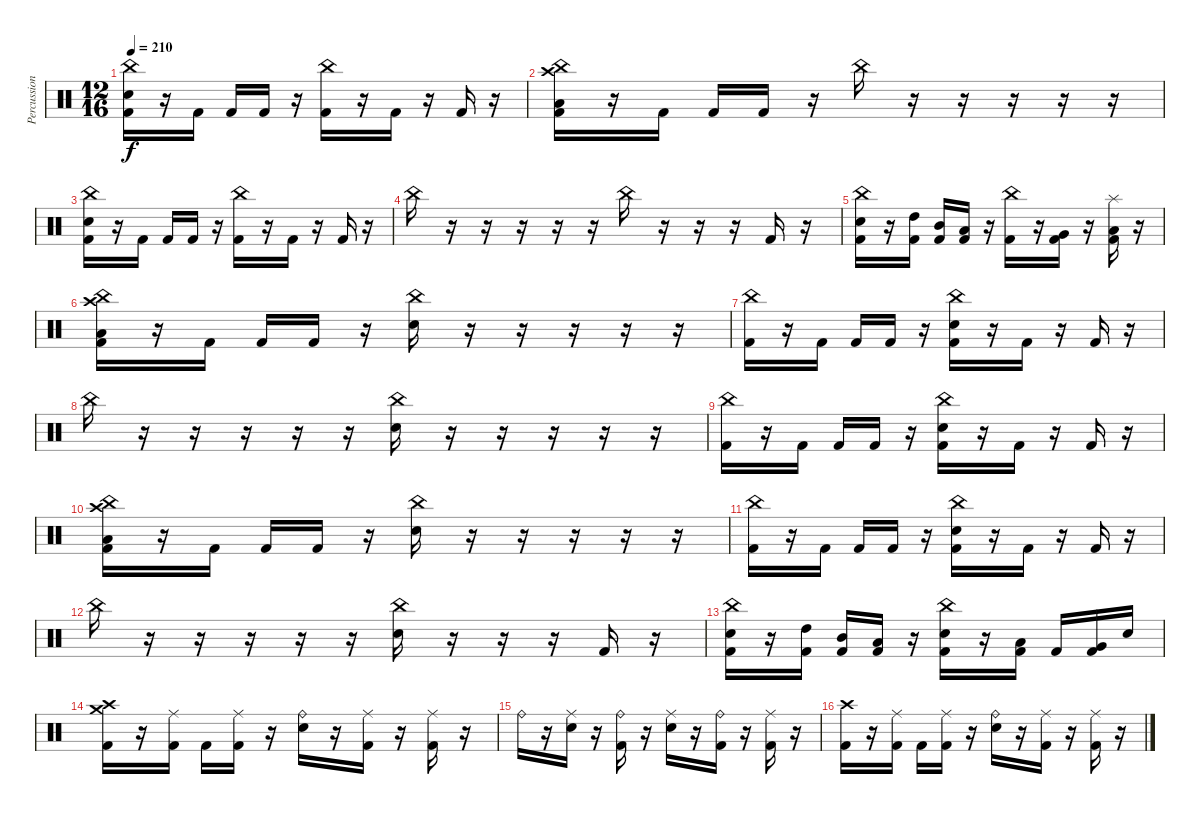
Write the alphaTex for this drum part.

\track ("Percussion" "Percussion") {instrument percussion}
\staff {score}
\articulation defaults
\ts (12 16)
\tempo 210
\clef neutral
\ks c
("China (hit)" "Electric Snare (hit)" "Kick (hit) 2").16{dy f} r.16 "Kick (hit) 2".16 "Kick (hit) 2".16 "Kick (hit) 2".16 r.16 ("China (hit)" "Kick (hit) 2").16 r.16 "Kick (hit) 2".16 r.16 "Kick (hit) 2".16 r.16 |
("Crash high (hit)" "China (hit)" "Low Floor Tom (hit)" "Kick (hit) 2").16 r.16 "Kick (hit) 2".16 "Kick (hit) 2".16 "Kick (hit) 2".16 r.16 "China (hit)".16 r.16 r.16 r.16 r.16 r.16 |
("China (hit)" "Electric Snare (hit)" "Kick (hit) 2").16 r.16 "Kick (hit) 2".16 "Kick (hit) 2".16 "Kick (hit) 2".16 r.16 ("China (hit)" "Kick (hit) 2").16 r.16 "Kick (hit) 2".16 r.16 "Kick (hit) 2".16 r.16 |
"China (hit)".16 r.16 r.16 r.16 r.16 r.16 "China (hit)".16 r.16 r.16 r.16 "Kick (hit) 2".16 r.16 |
("China (hit)" "Electric Snare (hit)" "Kick (hit) 2").16 r.16 ("High Tom (hit)" "Kick (hit) 2").16 ("Mid Tom (hit)" "Kick (hit) 2").16 ("Low Tom (hit)" "Kick (hit) 2").16 r.16 ("China (hit)" "Kick (hit) 2").16 r.16 ("Very Low Tom (hit)" "Kick (hit) 2").16 r.16 ("Splash (hit)" "Low Floor Tom (hit)" "Kick (hit) 2").16 r.16 |
("Crash high (hit)" "China (hit)" "Low Floor Tom (hit)" "Kick (hit) 2").16 r.16 "Kick (hit) 2".16 "Kick (hit) 2".16 "Kick (hit) 2".16 r.16 ("China (hit)" "Electric Snare (hit)").16 r.16 r.16 r.16 r.16 r.16 |
("China (hit)" "Kick (hit) 2").16 r.16 "Kick (hit) 2".16 "Kick (hit) 2".16 "Kick (hit) 2".16 r.16 ("China (hit)" "Electric Snare (hit)" "Kick (hit) 2").16 r.16 "Kick (hit) 2".16 r.16 "Kick (hit) 2".16 r.16 |
"China (hit)".16 r.16 r.16 r.16 r.16 r.16 ("China (hit)" "Electric Snare (hit)").16 r.16 r.16 r.16 r.16 r.16 |
("China (hit)" "Kick (hit) 2").16 r.16 "Kick (hit) 2".16 "Kick (hit) 2".16 "Kick (hit) 2".16 r.16 ("China (hit)" "Electric Snare (hit)" "Kick (hit) 2").16 r.16 "Kick (hit) 2".16 r.16 "Kick (hit) 2".16 r.16 |
("Crash high (hit)" "China (hit)" "Low Floor Tom (hit)" "Kick (hit) 2").16 r.16 "Kick (hit) 2".16 "Kick (hit) 2".16 "Kick (hit) 2".16 r.16 ("China (hit)" "Electric Snare (hit)").16 r.16 r.16 r.16 r.16 r.16 |
("China (hit)" "Kick (hit) 2").16 r.16 "Kick (hit) 2".16 "Kick (hit) 2".16 "Kick (hit) 2".16 r.16 ("China (hit)" "Electric Snare (hit)" "Kick (hit) 2").16 r.16 "Kick (hit) 2".16 r.16 "Kick (hit) 2".16 r.16 |
"China (hit)".16 r.16 r.16 r.16 r.16 r.16 ("China (hit)" "Electric Snare (hit)").16 r.16 r.16 r.16 "Kick (hit) 2".16 r.16 |
("China (hit)" "Electric Snare (hit)" "Kick (hit) 2").16 r.16 ("High Tom (hit)" "Kick (hit) 2").16 ("Mid Tom (hit)" "Kick (hit) 2").16 ("Low Tom (hit)" "Kick (hit) 2").16 r.16 ("China (hit)" "Electric Snare (hit)" "Kick (hit) 2").16 r.16 ("Low Tom (hit)" "Kick (hit) 2").16 "Kick (hit) 2".16 ("Very Low Tom (hit)" "Kick (hit) 2").16 "Snare (hit)".16 |
("Crash high (hit)" "Crash medium (hit)" "Kick (hit) 2").16 r.16 ("Ride (middle)" "Kick (hit) 2").16 "Kick (hit) 2".16 ("Ride (middle)" "Kick (hit) 2").16 r.16 ("Ride (bell)" "Electric Snare (hit)").16 r.16 ("Ride (middle)" "Kick (hit) 2").16 r.16 ("Ride (middle)" "Kick (hit) 2").16 r.16 |
"Ride (bell)".16 r.16 ("Ride (middle)" "Electric Snare (hit)").16 r.16 ("Ride (bell)" "Kick (hit) 2").16 r.16 ("Ride (middle)" "Electric Snare (hit)").16 r.16 ("Ride (bell)" "Kick (hit) 2").16 r.16 ("Ride (middle)" "Kick (hit) 2").16 r.16 |
("Crash high (hit)" "Kick (hit) 2").16 r.16 ("Ride (middle)" "Kick (hit) 2").16 "Kick (hit) 2".16 ("Ride (middle)" "Kick (hit) 2").16 r.16 ("Ride (bell)" "Electric Snare (hit)").16 r.16 ("Ride (middle)" "Kick (hit) 2").16 r.16 ("Ride (middle)" "Kick (hit) 2").16 r.16
